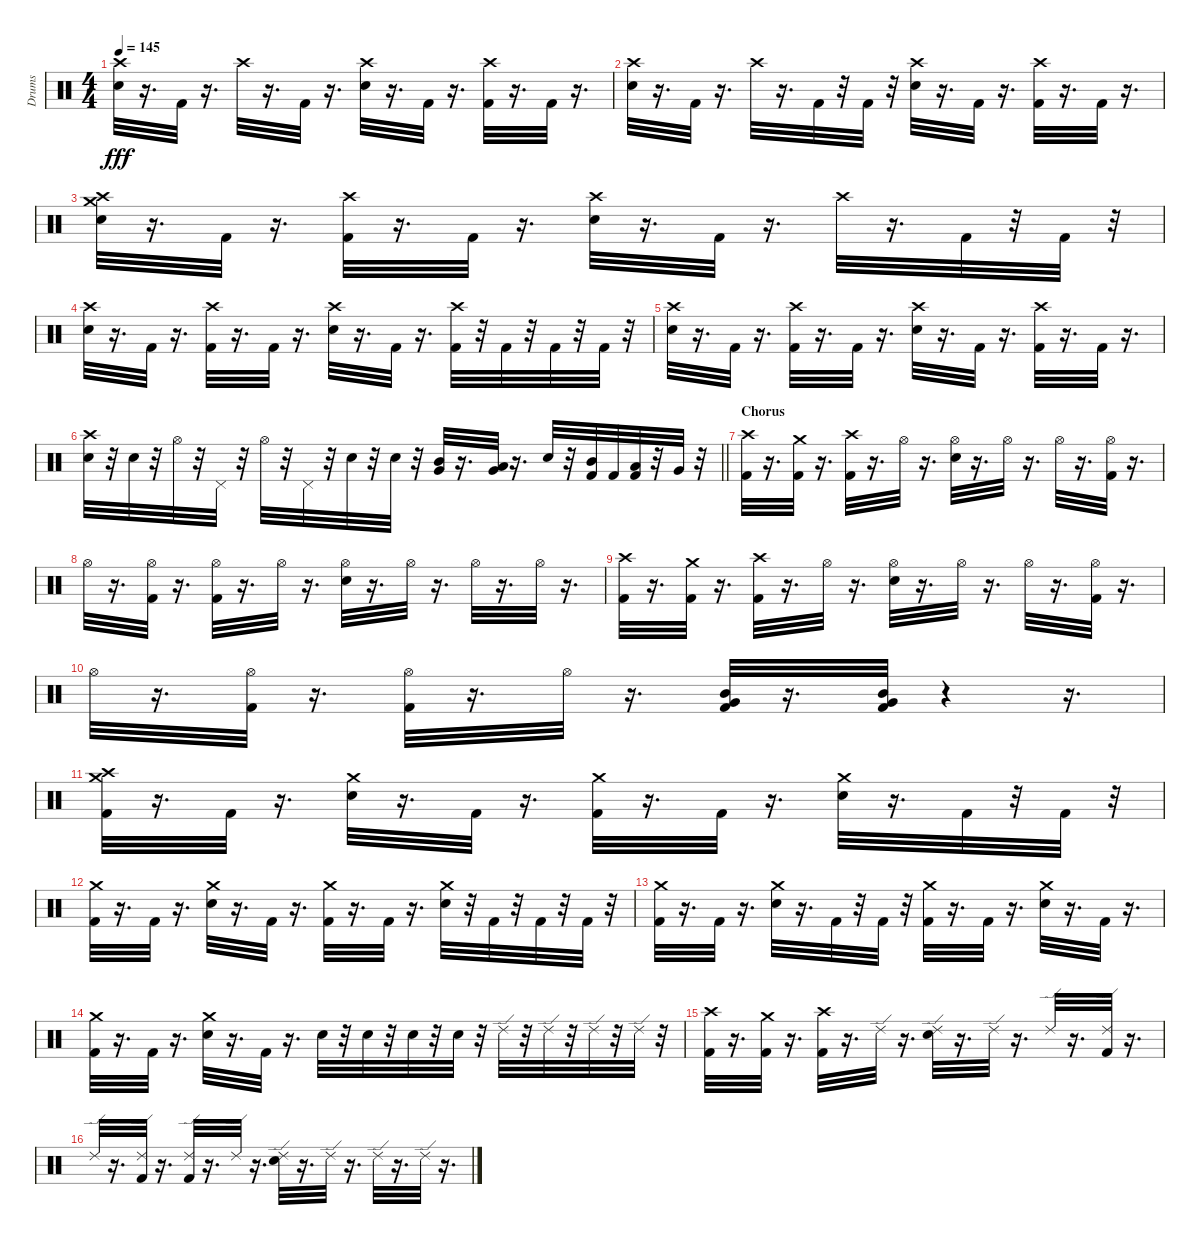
\track ("Drums" "Drums") {instrument percussion}
\staff {score}
\articulation defaults
\ts (4 4)
\tempo 145
\clef neutral
\ks c
("Snare (hit) 2" "Crash high (hit)").32{dy fff} r.16{d} "Kick (hit) 2".32 r.16{d} "Crash high (hit)".32 r.16{d} "Kick (hit) 2".32 r.16{d} ("Snare (hit) 2" "Crash high (hit)").32 r.16{d} "Kick (hit) 2".32 r.16{d} ("Kick (hit) 2" "Crash high (hit)").32 r.16{d} "Kick (hit) 2".32 r.16{d} |
("Snare (hit) 2" "Crash high (hit)").32 r.16{d} "Kick (hit) 2".32 r.16{d} "Crash high (hit)".32 r.16{d} "Kick (hit) 2".32 r.32 "Kick (hit) 2".32 r.32 ("Snare (hit) 2" "Crash high (hit)").32 r.16{d} "Kick (hit) 2".32 r.16{d} ("Kick (hit) 2" "Crash high (hit)").32 r.16{d} "Kick (hit) 2".32 r.16{d} |
("Snare (hit) 2" "Crash medium (hit)" "Crash high (hit)").32 r.16{d} "Kick (hit) 2".32 r.16{d} ("Kick (hit) 2" "Crash high (hit)").32 r.16{d} "Kick (hit) 2".32 r.16{d} ("Snare (hit) 2" "Crash high (hit)").32 r.16{d} "Kick (hit) 2".32 r.16{d} "Crash high (hit)".32 r.16{d} "Kick (hit) 2".32 r.32 "Kick (hit) 2".32 r.32 |
("Snare (hit) 2" "Crash high (hit)").32 r.16{d} "Kick (hit) 2".32 r.16{d} ("Kick (hit) 2" "Crash high (hit)").32 r.16{d} "Kick (hit) 2".32 r.16{d} ("Snare (hit) 2" "Crash high (hit)").32 r.16{d} "Kick (hit) 2".32 r.16{d} ("Kick (hit) 2" "Crash high (hit)").32 r.32 "Kick (hit) 2".32 r.32 "Kick (hit) 2".32 r.32 "Kick (hit) 2".32 r.32 |
("Snare (hit) 2" "Crash high (hit)").32 r.16{d} "Kick (hit) 2".32 r.16{d} ("Kick (hit) 2" "Crash high (hit)").32 r.16{d} "Kick (hit) 2".32 r.16{d} ("Snare (hit) 2" "Crash high (hit)").32 r.16{d} "Kick (hit) 2".32 r.16{d} ("Kick (hit) 2" "Crash high (hit)").32 r.16{d} "Kick (hit) 2".32 r.16{d} |
\barLineRight lightlight
("Snare (hit) 2" "Crash high (hit)").32 r.32 "Snare (hit) 2".32 r.32 "Hi-Hat (open)".32 r.32 "Pedal Hi-Hat (hit)".32 r.32 "Hi-Hat (open)".32 r.32 "Pedal Hi-Hat (hit)".32 r.32 "Snare (hit) 2".32 r.32 "Snare (hit) 2".32 r.32 ("Mid Tom (hit)" "Very Low Tom (hit)").32 r.16{d} ("Low Tom (hit)" "Very Low Tom (hit)").32 r.16{d} "Snare (hit) 2".32 r.32 ("Mid Tom (hit)" "Kick (hit) 2").32 "Kick (hit) 2".32 ("Low Tom (hit)" "Kick (hit) 2").32 r.32 "Very Low Tom (hit)".32 r.32 |
\section ("" "Chorus")
("Crash high (hit)" "Kick (hit) 2").32 r.16{d} ("Crash medium (hit)" "Kick (hit) 2").32 r.16{d} ("Crash high (hit)" "Kick (hit) 2").32 r.16{d} "Hi-Hat (open)".32 r.16{d} ("Snare (hit) 2" "Hi-Hat (open)").32 r.16{d} "Hi-Hat (open)".32 r.16{d} "Hi-Hat (open)".32 r.16{d} ("Kick (hit) 2" "Hi-Hat (open)").32 r.16{d} |
"Hi-Hat (open)".32 r.16{d} ("Kick (hit) 2" "Hi-Hat (open)").32 r.16{d} ("Kick (hit) 2" "Hi-Hat (open)").32 r.16{d} "Hi-Hat (open)".32 r.16{d} ("Snare (hit) 2" "Hi-Hat (open)").32 r.16{d} "Hi-Hat (open)".32 r.16{d} "Hi-Hat (open)".32 r.16{d} "Hi-Hat (open)".32 r.16{d} |
("Crash high (hit)" "Kick (hit) 2").32 r.16{d} ("Crash medium (hit)" "Kick (hit) 2").32 r.16{d} ("Crash high (hit)" "Kick (hit) 2").32 r.16{d} "Hi-Hat (open)".32 r.16{d} ("Snare (hit) 2" "Hi-Hat (open)").32 r.16{d} "Hi-Hat (open)".32 r.16{d} "Hi-Hat (open)".32 r.16{d} ("Kick (hit) 2" "Hi-Hat (open)").32 r.16{d} |
"Hi-Hat (open)".32 r.16{d} ("Hi-Hat (open)" "Kick (hit) 2").32 r.16{d} ("Hi-Hat (open)" "Kick (hit) 2").32 r.16{d} "Hi-Hat (open)".32 r.16{d} ("Mid Tom (hit)" "Very Low Tom (hit)" "Kick (hit) 2").32 r.16{d} ("Mid Tom (hit)" "Very Low Tom (hit)" "Kick (hit) 2").32 r.4 r.16{d} |
("Crash medium (hit)" "Crash high (hit)" "Kick (hit) 2").32 r.16{d} "Kick (hit) 2".32 r.16{d} ("Crash medium (hit)" "Snare (hit) 2").32 r.16{d} "Kick (hit) 2".32 r.16{d} ("Kick (hit) 2" "Crash medium (hit)").32 r.16{d} "Kick (hit) 2".32 r.16{d} ("Crash medium (hit)" "Snare (hit) 2").32 r.16{d} "Kick (hit) 2".32 r.32 "Kick (hit) 2".32 r.32 |
("Kick (hit) 2" "Crash medium (hit)").32 r.16{d} "Kick (hit) 2".32 r.16{d} ("Crash medium (hit)" "Snare (hit) 2").32 r.16{d} "Kick (hit) 2".32 r.16{d} ("Kick (hit) 2" "Crash medium (hit)").32 r.16{d} "Kick (hit) 2".32 r.16{d} ("Crash medium (hit)" "Snare (hit) 2").32 r.32 "Kick (hit) 2".32 r.32 "Kick (hit) 2".32 r.32 "Kick (hit) 2".32 r.32 |
("Kick (hit) 2" "Crash medium (hit)").32 r.16{d} "Kick (hit) 2".32 r.16{d} ("Crash medium (hit)" "Snare (hit) 2").32 r.16{d} "Kick (hit) 2".32 r.32 "Kick (hit) 2".32 r.32 ("Kick (hit) 2" "Crash medium (hit)").32 r.16{d} "Kick (hit) 2".32 r.16{d} ("Crash medium (hit)" "Snare (hit) 2").32 r.16{d} "Kick (hit) 2".32 r.16{d} |
("Kick (hit) 2" "Crash medium (hit)").32 r.16{d} "Kick (hit) 2".32 r.16{d} ("Snare (hit) 2" "Crash medium (hit)").32 r.16{d} "Kick (hit) 2".32 r.16{d} "Snare (hit) 2".32 r.32 "Snare (hit) 2".32 r.32 "Snare (hit) 2".32 r.32 "Snare (hit) 2".32 r.32 "Ride (edge) 2".32 r.32 "Ride (edge) 2".32 r.32 "Ride (edge) 2".32 r.32 "Ride (edge) 2".32 r.32 |
("Crash high (hit)" "Kick (hit) 2").32 r.16{d} ("Crash medium (hit)" "Kick (hit) 2").32 r.16{d} ("Crash high (hit)" "Kick (hit) 2").32 r.16{d} "Ride (edge) 2".32 r.16{d} ("Ride (edge) 2" "Snare (hit) 2").32 r.16{d} "Ride (edge) 2".32 r.16{d} "Ride (edge) 2".32 r.16{d} ("Ride (edge) 2" "Kick (hit) 2").32 r.16{d} |
"Ride (edge) 2".32 r.16{d} ("Ride (edge) 2" "Kick (hit) 2").32 r.16{d} ("Ride (edge) 2" "Kick (hit) 2").32 r.16{d} "Ride (edge) 2".32 r.16{d} ("Ride (edge) 2" "Snare (hit) 2").32 r.16{d} "Ride (edge) 2".32 r.16{d} "Ride (edge) 2".32 r.16{d} "Ride (edge) 2".32 r.16{d}
